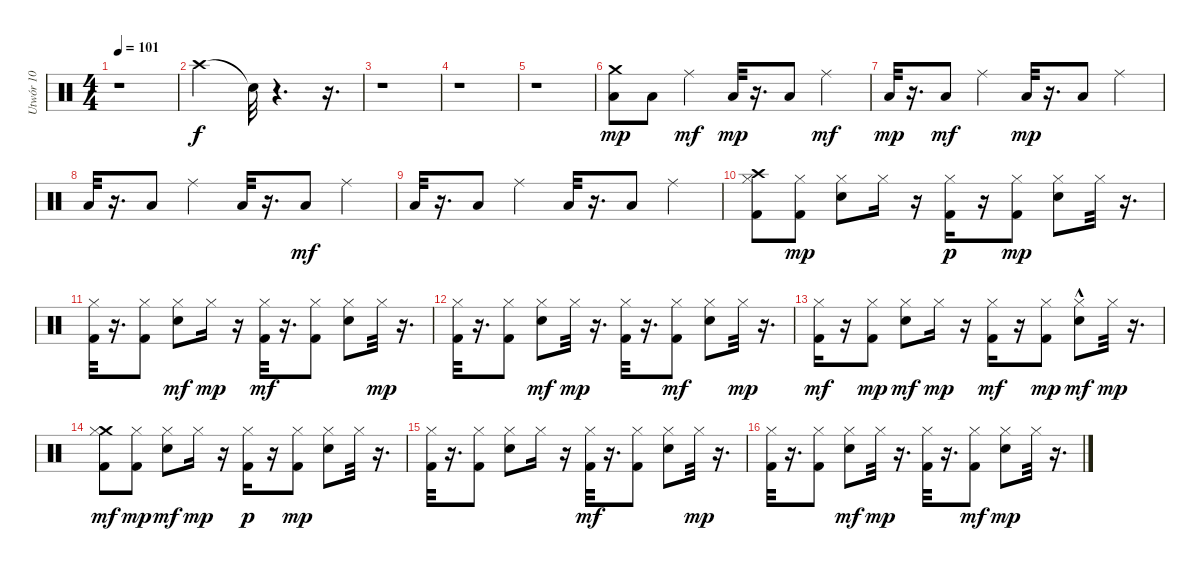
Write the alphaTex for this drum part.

\track ("Utwór 10" "Utwór 10") {instrument percussion}
\staff {score}
\articulation defaults
\ts (4 4)
\tempo 101
\clef neutral
\ks c
r.1{dy f} |
"Crash high (hit)".2 "Snare (hit)"{t}.32 r.4{d} r.16{d} |
r.1 |
r.1 |
r.1 |
("Low Tom (hit)" "Crash medium (hit)").8{dy mp} "Low Tom (hit)".8 "Ride (middle)".4{dy mf} "Low Tom (hit)".32{dy mp} r.16{d} "Low Tom (hit)".8 "Ride (middle)".4{dy mf} |
"Low Tom (hit)".32{dy mp} r.16{d} "Low Tom (hit)".8{dy mf} "Ride (middle)".4 "Low Tom (hit)".32{dy mp} r.16{d} "Low Tom (hit)".8 "Ride (middle)".4 |
"Low Tom (hit)".32 r.16{d} "Low Tom (hit)".8 "Ride (middle)".4 "Low Tom (hit)".32 r.16{d} "Low Tom (hit)".8{dy mf} "Ride (middle)".4 |
"Low Tom (hit)".32 r.16{d} "Low Tom (hit)".8 "Ride (middle)".4 "Low Tom (hit)".32 r.16{d} "Low Tom (hit)".8 "Ride (middle)".4 |
("Crash high (hit)" "Hi-Hat (closed)" "Kick (hit) 2").8 ("Hi-Hat (closed)" "Kick (hit) 2").8{dy mp} ("Snare (hit) 2" "Hi-Hat (closed)").8 "Hi-Hat (closed)".16 r.16 ("Kick (hit) 2" "Hi-Hat (closed)").16{dy p} r.16 ("Hi-Hat (closed)" "Kick (hit) 2").8{dy mp} ("Snare (hit) 2" "Hi-Hat (closed)").8 "Hi-Hat (closed)".32 r.16{d} |
("Kick (hit) 2" "Hi-Hat (closed)").32 r.16{d} ("Kick (hit) 2" "Hi-Hat (closed)").8 ("Hi-Hat (closed)" "Snare (hit) 2").8{dy mf} "Hi-Hat (closed)".16{dy mp} r.16 ("Kick (hit) 2" "Hi-Hat (closed)").32{dy mf} r.16{d} ("Kick (hit) 2" "Hi-Hat (closed)").8 ("Hi-Hat (closed)" "Snare (hit) 2").8 "Hi-Hat (closed)".32{dy mp} r.16{d} |
("Hi-Hat (closed)" "Kick (hit) 2").32 r.16{d} ("Kick (hit) 2" "Hi-Hat (closed)").8 ("Snare (hit) 2" "Hi-Hat (closed)").8{dy mf} "Hi-Hat (closed)".32{dy mp} r.16{d} ("Kick (hit) 2" "Hi-Hat (closed)").32 r.16{d} ("Hi-Hat (closed)" "Kick (hit) 2").8{dy mf} ("Hi-Hat (closed)" "Snare (hit) 2").8 "Hi-Hat (closed)".32{dy mp} r.16{d} |
("Kick (hit) 2" "Hi-Hat (closed)").16{dy mf} r.16 ("Kick (hit) 2" "Hi-Hat (closed)").8{dy mp} ("Hi-Hat (closed)" "Snare (hit) 2").8{dy mf} "Hi-Hat (closed)".16{dy mp} r.16 ("Hi-Hat (closed)" "Kick (hit) 2").16{dy mf} r.16 ("Hi-Hat (closed)" "Kick (hit) 2").8{dy mp} ("Snare (hit) 2"{hac} "Hi-Hat (closed)").8{dy mf} "Hi-Hat (closed)".32{dy mp} r.16{d} |
("Crash medium (hit)" "Hi-Hat (closed)" "Kick (hit) 2").8{dy mf} ("Kick (hit) 2" "Hi-Hat (closed)").8{dy mp} ("Hi-Hat (closed)" "Snare (hit) 2").8{dy mf} "Hi-Hat (closed)".16{dy mp} r.16 ("Kick (hit) 2" "Hi-Hat (closed)").16{dy p} r.16 ("Hi-Hat (closed)" "Kick (hit) 2").8{dy mp} ("Snare (hit) 2" "Hi-Hat (closed)").8 "Hi-Hat (closed)".32 r.16{d} |
("Kick (hit) 2" "Hi-Hat (closed)").32 r.16{d} ("Hi-Hat (closed)" "Kick (hit) 2").8 ("Snare (hit) 2" "Hi-Hat (closed)").8 "Hi-Hat (closed)".16 r.16 ("Hi-Hat (closed)" "Kick (hit) 2").32{dy mf} r.16{d} ("Hi-Hat (closed)" "Kick (hit) 2").8 ("Hi-Hat (closed)" "Snare (hit) 2").8 "Hi-Hat (closed)".32{dy mp} r.16{d} |
("Hi-Hat (closed)" "Kick (hit) 2").32 r.16{d} ("Hi-Hat (closed)" "Kick (hit) 2").8 ("Snare (hit) 2" "Hi-Hat (closed)").8{dy mf} "Hi-Hat (closed)".32{dy mp} r.16{d} ("Kick (hit) 2" "Hi-Hat (closed)").32 r.16{d} ("Hi-Hat (closed)" "Kick (hit) 2").8{dy mf} ("Snare (hit) 2" "Hi-Hat (closed)").8{dy mp} "Hi-Hat (closed)".32 r.16{d}
